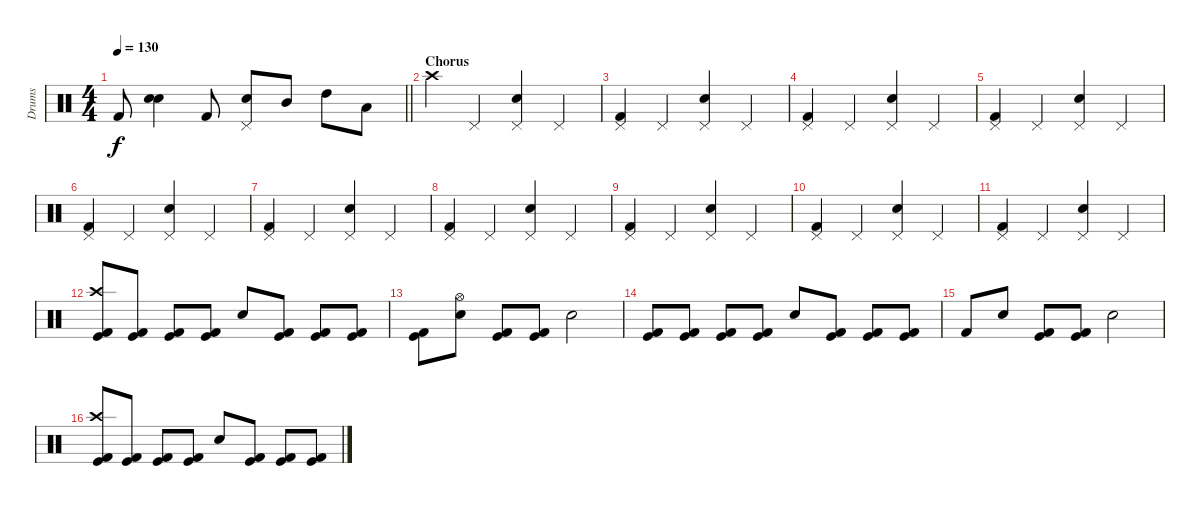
\track ("Drums" "Drums") {instrument percussion}
\staff {score}
\articulation defaults
\ts (4 4)
\tempo 130
\clef neutral
\barLineRight lightlight
\ks c "Kick (hit) 2".8{dy f}
("Electric Snare (hit)" "Snare (hit) 2").4 "Kick (hit) 2".8 ("Pedal Hi-Hat (hit)" "Snare (hit) 2").8 "Mid Tom (hit)".8 "High Tom (hit)".8 "Low Tom (hit)".8 |
\section ("" "Chorus")
"Crash high (hit)".4 "Pedal Hi-Hat (hit)".4 ("Pedal Hi-Hat (hit)" "Snare (hit) 2").4 "Pedal Hi-Hat (hit)".4 |
("Pedal Hi-Hat (hit)" "Kick (hit) 2").4 "Pedal Hi-Hat (hit)".4 ("Pedal Hi-Hat (hit)" "Snare (hit) 2").4 "Pedal Hi-Hat (hit)".4 |
("Pedal Hi-Hat (hit)" "Kick (hit) 2").4 "Pedal Hi-Hat (hit)".4 ("Pedal Hi-Hat (hit)" "Snare (hit) 2").4 "Pedal Hi-Hat (hit)".4 |
("Pedal Hi-Hat (hit)" "Kick (hit) 2").4 "Pedal Hi-Hat (hit)".4 ("Pedal Hi-Hat (hit)" "Snare (hit) 2").4 "Pedal Hi-Hat (hit)".4 |
("Pedal Hi-Hat (hit)" "Kick (hit) 2").4 "Pedal Hi-Hat (hit)".4 ("Pedal Hi-Hat (hit)" "Snare (hit) 2").4 "Pedal Hi-Hat (hit)".4 |
("Pedal Hi-Hat (hit)" "Kick (hit) 2").4 "Pedal Hi-Hat (hit)".4 ("Pedal Hi-Hat (hit)" "Snare (hit) 2").4 "Pedal Hi-Hat (hit)".4 |
("Pedal Hi-Hat (hit)" "Kick (hit) 2").4 "Pedal Hi-Hat (hit)".4 ("Pedal Hi-Hat (hit)" "Snare (hit) 2").4 "Pedal Hi-Hat (hit)".4 |
("Pedal Hi-Hat (hit)" "Kick (hit) 2").4 "Pedal Hi-Hat (hit)".4 ("Pedal Hi-Hat (hit)" "Snare (hit) 2").4 "Pedal Hi-Hat (hit)".4 |
("Pedal Hi-Hat (hit)" "Kick (hit) 2").4 "Pedal Hi-Hat (hit)".4 ("Pedal Hi-Hat (hit)" "Snare (hit) 2").4 "Pedal Hi-Hat (hit)".4 |
("Pedal Hi-Hat (hit)" "Kick (hit) 2").4 "Pedal Hi-Hat (hit)".4 ("Pedal Hi-Hat (hit)" "Snare (hit) 2").4 "Pedal Hi-Hat (hit)".4 |
("Crash high (hit)" "Kick (hit) 2" "Kick (hit)").8 ("Kick (hit) 2" "Kick (hit)").8 ("Kick (hit) 2" "Kick (hit)").8 ("Kick (hit) 2" "Kick (hit)").8 "Snare (hit) 2".8 ("Kick (hit) 2" "Kick (hit)").8 ("Kick (hit) 2" "Kick (hit)").8 ("Kick (hit) 2" "Kick (hit)").8 |
("Kick (hit) 2" "Kick (hit)").8 ("Snare (hit) 2" "Hi-Hat (open)").8 ("Kick (hit) 2" "Kick (hit)").8 ("Kick (hit) 2" "Kick (hit)").8 "Snare (hit) 2".2 |
("Kick (hit) 2" "Kick (hit)").8 ("Kick (hit) 2" "Kick (hit)").8 ("Kick (hit) 2" "Kick (hit)").8 ("Kick (hit) 2" "Kick (hit)").8 "Snare (hit) 2".8 ("Kick (hit) 2" "Kick (hit)").8 ("Kick (hit) 2" "Kick (hit)").8 ("Kick (hit) 2" "Kick (hit)").8 |
"Kick (hit) 2".8 "Snare (hit) 2".8 ("Kick (hit) 2" "Kick (hit)").8 ("Kick (hit) 2" "Kick (hit)").8 "Snare (hit) 2".2 |
("Crash high (hit)" "Kick (hit) 2" "Kick (hit)").8 ("Kick (hit) 2" "Kick (hit)").8 ("Kick (hit) 2" "Kick (hit)").8 ("Kick (hit) 2" "Kick (hit)").8 "Snare (hit) 2".8 ("Kick (hit) 2" "Kick (hit)").8 ("Kick (hit) 2" "Kick (hit)").8 ("Kick (hit) 2" "Kick (hit)").8
